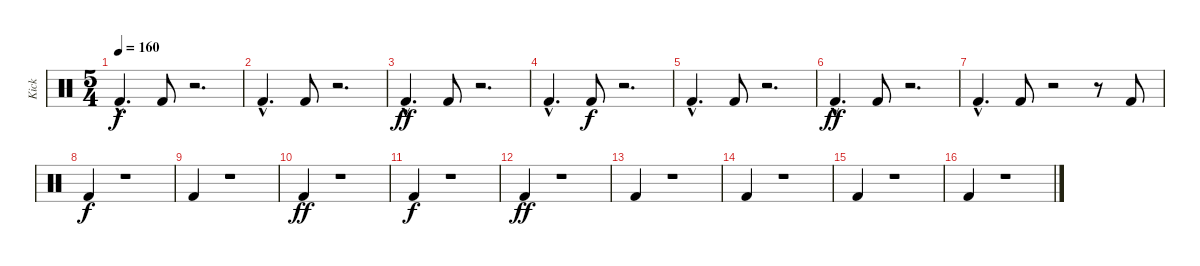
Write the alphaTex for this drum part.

\track ("Kick" "Kick") {instrument percussion}
\staff {score}
\articulation defaults
\ts (5 4)
\tempo 160
\clef neutral
\ks c "Kick (hit) 2"{hac}.4{d dy f} "Kick (hit) 2".8
r.2{d} |
"Kick (hit) 2"{hac}.4{d} "Kick (hit) 2".8 r.2{d} |
"Kick (hit) 2"{hac}.4{d dy ff} "Kick (hit) 2".8 r.2{d} |
"Kick (hit) 2"{hac}.4{d} "Kick (hit) 2".8{dy f} r.2{d} |
"Kick (hit) 2"{hac}.4{d} "Kick (hit) 2".8 r.2{d} |
"Kick (hit) 2"{hac}.4{d dy ff} "Kick (hit) 2".8 r.2{d} |
"Kick (hit) 2"{hac}.4{d} "Kick (hit) 2".8 r.2 r.8 "Kick (hit) 2".8 |
"Kick (hit) 2".4{dy f} r.1 |
"Kick (hit) 2".4 r.1 |
"Kick (hit) 2".4{dy ff} r.1 |
"Kick (hit) 2".4{dy f} r.1 |
"Kick (hit) 2".4{dy ff} r.1 |
"Kick (hit) 2".4 r.1 |
"Kick (hit) 2".4 r.1 |
"Kick (hit) 2".4 r.1 |
"Kick (hit) 2".4 r.1
